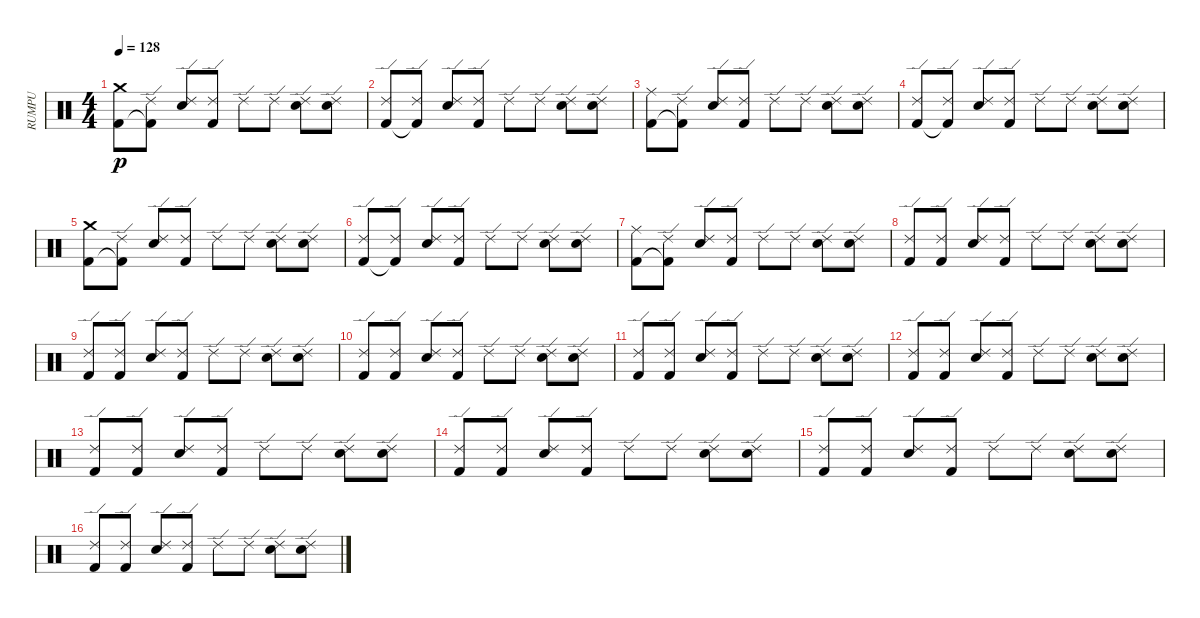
\track ("RUMPU" "RUMPU") {instrument percussion}
\staff {score}
\articulation defaults
\ts (4 4)
\tempo 128
\clef neutral
\ks c
("Crash medium (hit)" "Kick (hit) 2").8{dy p} ("Ride (edge) 2" "Kick (hit) 2"{t}).8 ("Ride (edge) 2" "Electric Snare (hit)").8 ("Ride (edge) 2" "Kick (hit) 2").8 "Ride (edge) 2".8 "Ride (edge) 2".8 ("Ride (edge) 2" "Electric Snare (hit)").8 ("Ride (edge) 2" "Electric Snare (hit)").8 |
("Ride (edge) 2" "Kick (hit) 2").8 ("Ride (edge) 2" "Kick (hit) 2"{t}).8 ("Ride (edge) 2" "Electric Snare (hit)").8 ("Ride (edge) 2" "Kick (hit) 2").8 "Ride (edge) 2".8 "Ride (edge) 2".8 ("Ride (edge) 2" "Electric Snare (hit)").8 ("Ride (edge) 2" "Electric Snare (hit)").8 |
("Ride (middle)" "Kick (hit) 2").8 ("Ride (edge) 2" "Kick (hit) 2"{t}).8 ("Ride (edge) 2" "Electric Snare (hit)").8 ("Ride (edge) 2" "Kick (hit) 2").8 "Ride (edge) 2".8 "Ride (edge) 2".8 ("Ride (edge) 2" "Electric Snare (hit)").8 ("Ride (edge) 2" "Electric Snare (hit)").8 |
("Ride (edge) 2" "Kick (hit) 2").8 ("Ride (edge) 2" "Kick (hit) 2"{t}).8 ("Ride (edge) 2" "Electric Snare (hit)").8 ("Ride (edge) 2" "Kick (hit) 2").8 "Ride (edge) 2".8 "Ride (edge) 2".8 ("Ride (edge) 2" "Electric Snare (hit)").8 ("Ride (edge) 2" "Electric Snare (hit)").8 |
("Crash medium (hit)" "Kick (hit) 2").8 ("Ride (edge) 2" "Kick (hit) 2"{t}).8 ("Ride (edge) 2" "Electric Snare (hit)").8 ("Ride (edge) 2" "Kick (hit) 2").8 "Ride (edge) 2".8 "Ride (edge) 2".8 ("Ride (edge) 2" "Electric Snare (hit)").8 ("Ride (edge) 2" "Electric Snare (hit)").8 |
("Ride (edge) 2" "Kick (hit) 2").8 ("Ride (edge) 2" "Kick (hit) 2"{t}).8 ("Ride (edge) 2" "Electric Snare (hit)").8 ("Ride (edge) 2" "Kick (hit) 2").8 "Ride (edge) 2".8 "Ride (edge) 2".8 ("Ride (edge) 2" "Electric Snare (hit)").8 ("Ride (edge) 2" "Electric Snare (hit)").8 |
("Ride (middle)" "Kick (hit) 2").8 ("Ride (edge) 2" "Kick (hit) 2"{t}).8 ("Ride (edge) 2" "Electric Snare (hit)").8 ("Ride (edge) 2" "Kick (hit) 2").8 "Ride (edge) 2".8 "Ride (edge) 2".8 ("Ride (edge) 2" "Electric Snare (hit)").8 ("Ride (edge) 2" "Electric Snare (hit)").8 |
("Ride (edge) 2" "Kick (hit) 2").8 ("Ride (edge) 2" "Kick (hit) 2").8 ("Ride (edge) 2" "Electric Snare (hit)").8 ("Ride (edge) 2" "Kick (hit) 2").8 "Ride (edge) 2".8 "Ride (edge) 2".8 ("Ride (edge) 2" "Electric Snare (hit)").8 ("Ride (edge) 2" "Electric Snare (hit)").8 |
("Ride (edge) 2" "Kick (hit) 2").8 ("Ride (edge) 2" "Kick (hit) 2").8 ("Ride (edge) 2" "Electric Snare (hit)").8 ("Ride (edge) 2" "Kick (hit) 2").8 "Ride (edge) 2".8 "Ride (edge) 2".8 ("Ride (edge) 2" "Electric Snare (hit)").8 ("Ride (edge) 2" "Electric Snare (hit)").8 |
("Ride (edge) 2" "Kick (hit) 2").8 ("Ride (edge) 2" "Kick (hit) 2").8 ("Ride (edge) 2" "Electric Snare (hit)").8 ("Ride (edge) 2" "Kick (hit) 2").8 "Ride (edge) 2".8 "Ride (edge) 2".8 ("Ride (edge) 2" "Electric Snare (hit)").8 ("Ride (edge) 2" "Electric Snare (hit)").8 |
("Ride (edge) 2" "Kick (hit) 2").8 ("Ride (edge) 2" "Kick (hit) 2").8 ("Ride (edge) 2" "Electric Snare (hit)").8 ("Ride (edge) 2" "Kick (hit) 2").8 "Ride (edge) 2".8 "Ride (edge) 2".8 ("Ride (edge) 2" "Electric Snare (hit)").8 ("Ride (edge) 2" "Electric Snare (hit)").8 |
("Ride (edge) 2" "Kick (hit) 2").8 ("Ride (edge) 2" "Kick (hit) 2").8 ("Ride (edge) 2" "Electric Snare (hit)").8 ("Ride (edge) 2" "Kick (hit) 2").8 "Ride (edge) 2".8 "Ride (edge) 2".8 ("Ride (edge) 2" "Electric Snare (hit)").8 ("Ride (edge) 2" "Electric Snare (hit)").8 |
("Ride (edge) 2" "Kick (hit) 2").8 ("Ride (edge) 2" "Kick (hit) 2").8 ("Ride (edge) 2" "Electric Snare (hit)").8 ("Ride (edge) 2" "Kick (hit) 2").8 "Ride (edge) 2".8 "Ride (edge) 2".8 ("Ride (edge) 2" "Electric Snare (hit)").8 ("Ride (edge) 2" "Electric Snare (hit)").8 |
("Ride (edge) 2" "Kick (hit) 2").8 ("Ride (edge) 2" "Kick (hit) 2").8 ("Ride (edge) 2" "Electric Snare (hit)").8 ("Ride (edge) 2" "Kick (hit) 2").8 "Ride (edge) 2".8 "Ride (edge) 2".8 ("Ride (edge) 2" "Electric Snare (hit)").8 ("Ride (edge) 2" "Electric Snare (hit)").8 |
("Ride (edge) 2" "Kick (hit) 2").8 ("Ride (edge) 2" "Kick (hit) 2").8 ("Ride (edge) 2" "Electric Snare (hit)").8 ("Ride (edge) 2" "Kick (hit) 2").8 "Ride (edge) 2".8 "Ride (edge) 2".8 ("Ride (edge) 2" "Electric Snare (hit)").8 ("Ride (edge) 2" "Electric Snare (hit)").8 |
("Ride (edge) 2" "Kick (hit) 2").8 ("Ride (edge) 2" "Kick (hit) 2").8 ("Ride (edge) 2" "Electric Snare (hit)").8 ("Ride (edge) 2" "Kick (hit) 2").8 "Ride (edge) 2".8 "Ride (edge) 2".8 ("Ride (edge) 2" "Electric Snare (hit)").8 ("Ride (edge) 2" "Electric Snare (hit)").8
